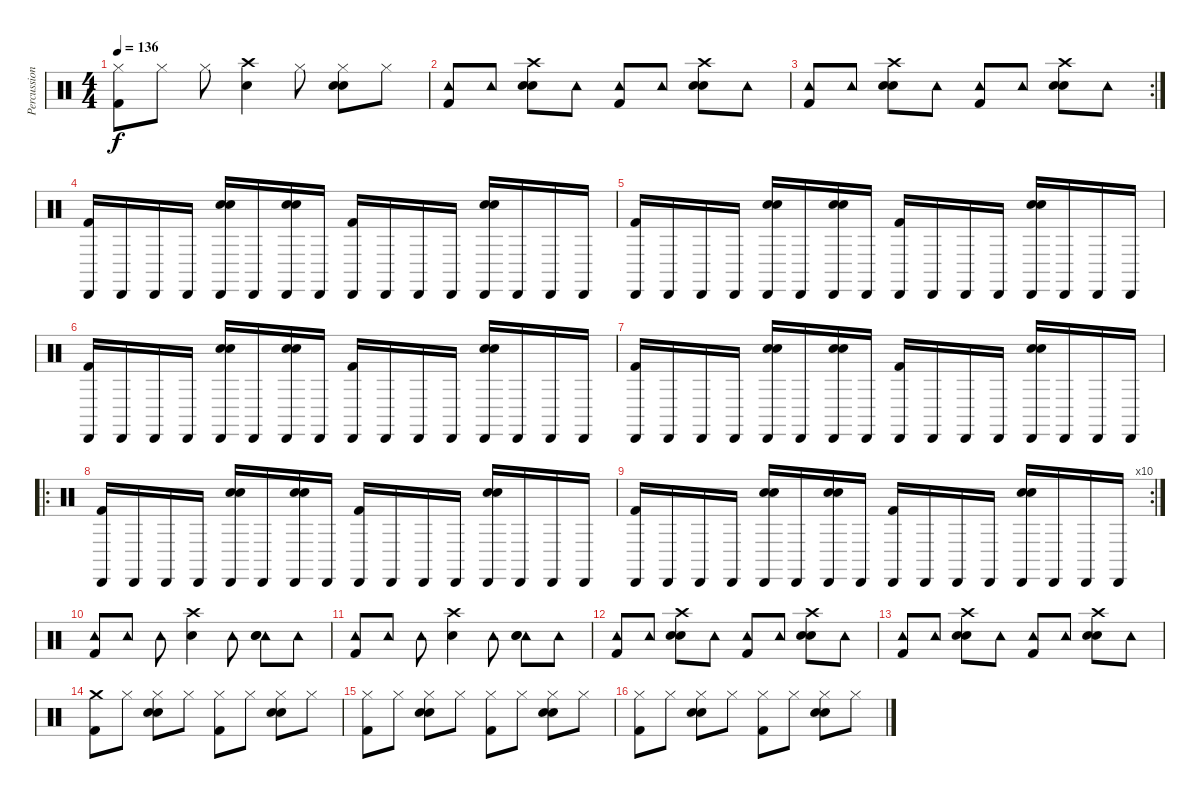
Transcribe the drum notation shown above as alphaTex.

\track ("Percussion" "Percussion") {instrument percussion}
\staff {score}
\articulation defaults
\ts (4 4)
\tempo 136
\clef neutral
\ks c
("Hi-Hat (closed)" "Kick (hit) 2").8{dy f} "Hi-Hat (closed)".8 "Hi-Hat (closed)".8 ("Crash high (hit)" "Snare (hit) 2").4 "Hi-Hat (closed)".8 ("Hi-Hat (closed)" "Snare (hit) 2" "Hand Clap (hit)").8 "Hi-Hat (closed)".8 |
("Tambourine (hit)" "Kick (hit) 2").8 "Tambourine (hit)".8 ("Crash high (hit)" "Snare (hit) 2" "Hand Clap (hit)").8 "Tambourine (hit)".8 ("Tambourine (hit)" "Kick (hit) 2").8 "Tambourine (hit)".8 ("Crash high (hit)" "Snare (hit) 2" "Hand Clap (hit)").8 "Tambourine (hit)".8 |
\rc 2
("Tambourine (hit)" "Kick (hit) 2").8 "Tambourine (hit)".8 ("Crash high (hit)" "Snare (hit) 2" "Hand Clap (hit)").8 "Tambourine (hit)".8 ("Tambourine (hit)" "Kick (hit) 2").8 "Tambourine (hit)".8 ("Crash high (hit)" "Snare (hit) 2" "Hand Clap (hit)").8 "Tambourine (hit)".8 |
("Cabasa (hit)" "Kick (hit) 2").16 "Cabasa (hit)".16 "Cabasa (hit)".16 "Cabasa (hit)".16 ("Cabasa (hit)" "Snare (hit) 2" "Hand Clap (hit)").16 "Cabasa (hit)".16 ("Cabasa (hit)" "Snare (hit) 2" "Hand Clap (hit)").16 "Cabasa (hit)".16 ("Cabasa (hit)" "Kick (hit) 2").16 "Cabasa (hit)".16 "Cabasa (hit)".16 "Cabasa (hit)".16 ("Cabasa (hit)" "Snare (hit) 2" "Hand Clap (hit)").16 "Cabasa (hit)".16 "Cabasa (hit)".16 "Cabasa (hit)".16 |
("Cabasa (hit)" "Kick (hit) 2").16 "Cabasa (hit)".16 "Cabasa (hit)".16 "Cabasa (hit)".16 ("Cabasa (hit)" "Snare (hit) 2" "Hand Clap (hit)").16 "Cabasa (hit)".16 ("Cabasa (hit)" "Snare (hit) 2" "Hand Clap (hit)").16 "Cabasa (hit)".16 ("Cabasa (hit)" "Kick (hit) 2").16 "Cabasa (hit)".16 "Cabasa (hit)".16 "Cabasa (hit)".16 ("Cabasa (hit)" "Snare (hit) 2" "Hand Clap (hit)").16 "Cabasa (hit)".16 "Cabasa (hit)".16 "Cabasa (hit)".16 |
("Cabasa (hit)" "Kick (hit) 2").16 "Cabasa (hit)".16 "Cabasa (hit)".16 "Cabasa (hit)".16 ("Cabasa (hit)" "Snare (hit) 2" "Hand Clap (hit)").16 "Cabasa (hit)".16 ("Cabasa (hit)" "Snare (hit) 2" "Hand Clap (hit)").16 "Cabasa (hit)".16 ("Cabasa (hit)" "Kick (hit) 2").16 "Cabasa (hit)".16 "Cabasa (hit)".16 "Cabasa (hit)".16 ("Cabasa (hit)" "Snare (hit) 2" "Hand Clap (hit)").16 "Cabasa (hit)".16 "Cabasa (hit)".16 "Cabasa (hit)".16 |
("Cabasa (hit)" "Kick (hit) 2").16 "Cabasa (hit)".16 "Cabasa (hit)".16 "Cabasa (hit)".16 ("Cabasa (hit)" "Snare (hit) 2" "Hand Clap (hit)").16 "Cabasa (hit)".16 ("Cabasa (hit)" "Snare (hit) 2" "Hand Clap (hit)").16 "Cabasa (hit)".16 ("Cabasa (hit)" "Kick (hit) 2").16 "Cabasa (hit)".16 "Cabasa (hit)".16 "Cabasa (hit)".16 ("Cabasa (hit)" "Snare (hit) 2" "Hand Clap (hit)").16 "Cabasa (hit)".16 "Cabasa (hit)".16 "Cabasa (hit)".16 |
\ro
("Cabasa (hit)" "Kick (hit) 2").16 "Cabasa (hit)".16 "Cabasa (hit)".16 "Cabasa (hit)".16 ("Cabasa (hit)" "Snare (hit) 2" "Hand Clap (hit)").16 "Cabasa (hit)".16 ("Cabasa (hit)" "Snare (hit) 2" "Hand Clap (hit)").16 "Cabasa (hit)".16 ("Cabasa (hit)" "Kick (hit) 2").16 "Cabasa (hit)".16 "Cabasa (hit)".16 "Cabasa (hit)".16 ("Cabasa (hit)" "Snare (hit) 2" "Hand Clap (hit)").16 "Cabasa (hit)".16 "Cabasa (hit)".16 "Cabasa (hit)".16 |
\rc 10
("Cabasa (hit)" "Kick (hit) 2").16 "Cabasa (hit)".16 "Cabasa (hit)".16 "Cabasa (hit)".16 ("Cabasa (hit)" "Snare (hit) 2" "Hand Clap (hit)").16 "Cabasa (hit)".16 ("Cabasa (hit)" "Snare (hit) 2" "Hand Clap (hit)").16 "Cabasa (hit)".16 ("Cabasa (hit)" "Kick (hit) 2").16 "Cabasa (hit)".16 "Cabasa (hit)".16 "Cabasa (hit)".16 ("Cabasa (hit)" "Snare (hit) 2" "Hand Clap (hit)").16 "Cabasa (hit)".16 "Cabasa (hit)".16 "Cabasa (hit)".16 |
("Tambourine (hit)" "Kick (hit) 2").8 "Tambourine (hit)".8 "Tambourine (hit)".8 ("Crash high (hit)" "Snare (hit) 2").4 "Tambourine (hit)".8 ("Tambourine (hit)" "Snare (hit) 2" "Hand Clap (hit)").8 "Tambourine (hit)".8 |
("Tambourine (hit)" "Kick (hit) 2").8 "Tambourine (hit)".8 "Tambourine (hit)".8 ("Crash high (hit)" "Snare (hit) 2").4 "Tambourine (hit)".8 ("Tambourine (hit)" "Snare (hit) 2" "Hand Clap (hit)").8 "Tambourine (hit)".8 |
("Tambourine (hit)" "Kick (hit) 2").8 "Tambourine (hit)".8 ("Crash high (hit)" "Snare (hit) 2" "Hand Clap (hit)").8 "Tambourine (hit)".8 ("Tambourine (hit)" "Kick (hit) 2").8 "Tambourine (hit)".8 ("Crash high (hit)" "Snare (hit) 2" "Hand Clap (hit)").8 "Tambourine (hit)".8 |
("Tambourine (hit)" "Kick (hit) 2").8 "Tambourine (hit)".8 ("Crash high (hit)" "Snare (hit) 2" "Hand Clap (hit)").8 "Tambourine (hit)".8 ("Tambourine (hit)" "Kick (hit) 2").8 "Tambourine (hit)".8 ("Crash high (hit)" "Snare (hit) 2" "Hand Clap (hit)").8 "Tambourine (hit)".8 |
("Crash medium (hit)" "Kick (hit) 2").8 "Hi-Hat (closed)".8 ("Hi-Hat (closed)" "Snare (hit) 2" "Hand Clap (hit)").8 "Hi-Hat (closed)".8 ("Hi-Hat (closed)" "Kick (hit) 2").8 "Hi-Hat (closed)".8 ("Hi-Hat (closed)" "Snare (hit) 2" "Hand Clap (hit)").8 "Hi-Hat (closed)".8 |
("Hi-Hat (closed)" "Kick (hit) 2").8 "Hi-Hat (closed)".8 ("Hi-Hat (closed)" "Snare (hit) 2" "Hand Clap (hit)").8 "Hi-Hat (closed)".8 ("Hi-Hat (closed)" "Kick (hit) 2").8 "Hi-Hat (closed)".8 ("Hi-Hat (closed)" "Snare (hit) 2" "Hand Clap (hit)").8 "Hi-Hat (closed)".8 |
("Hi-Hat (closed)" "Kick (hit) 2").8 "Hi-Hat (closed)".8 ("Hi-Hat (closed)" "Snare (hit) 2" "Hand Clap (hit)").8 "Hi-Hat (closed)".8 ("Hi-Hat (closed)" "Kick (hit) 2").8 "Hi-Hat (closed)".8 ("Hi-Hat (closed)" "Snare (hit) 2" "Hand Clap (hit)").8 "Hi-Hat (closed)".8
